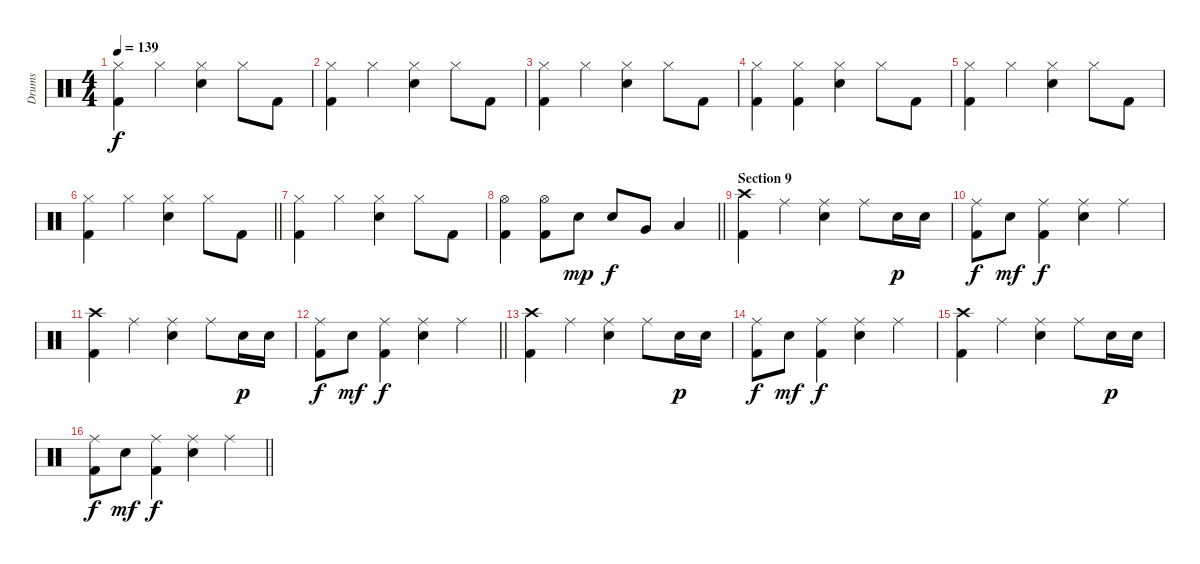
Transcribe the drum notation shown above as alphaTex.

\track ("Drums" "Drums") {instrument percussion}
\staff {score}
\articulation defaults
\ts (4 4)
\tempo 139
\clef neutral
\ks c
("Hi-Hat (closed)" "Kick (hit) 2").4{dy f} "Hi-Hat (closed)".4 ("Hi-Hat (closed)" "Electric Snare (hit)").4 "Hi-Hat (closed)".8 "Kick (hit) 2".8 |
("Hi-Hat (closed)" "Kick (hit) 2").4 "Hi-Hat (closed)".4 ("Hi-Hat (closed)" "Electric Snare (hit)").4 "Hi-Hat (closed)".8 "Kick (hit) 2".8 |
("Hi-Hat (closed)" "Kick (hit) 2").4 "Hi-Hat (closed)".4 ("Hi-Hat (closed)" "Electric Snare (hit)").4 "Hi-Hat (closed)".8 "Kick (hit) 2".8 |
("Hi-Hat (closed)" "Kick (hit) 2").4 ("Hi-Hat (closed)" "Kick (hit) 2").4 ("Hi-Hat (closed)" "Electric Snare (hit)").4 "Hi-Hat (closed)".8 "Kick (hit) 2".8 |
("Hi-Hat (closed)" "Kick (hit) 2").4 "Hi-Hat (closed)".4 ("Hi-Hat (closed)" "Electric Snare (hit)").4 "Hi-Hat (closed)".8 "Kick (hit) 2".8 |
\barLineRight lightlight
("Hi-Hat (closed)" "Kick (hit) 2").4 "Hi-Hat (closed)".4 ("Hi-Hat (closed)" "Electric Snare (hit)").4 "Hi-Hat (closed)".8 "Kick (hit) 2".8 |
("Hi-Hat (closed)" "Kick (hit) 2").4 "Hi-Hat (closed)".4 ("Hi-Hat (closed)" "Electric Snare (hit)").4 "Hi-Hat (closed)".8 "Kick (hit) 2".8 |
\barLineRight lightlight
("Hi-Hat (open)" "Kick (hit) 2").4 ("Hi-Hat (open)" "Kick (hit) 2").8 "Electric Snare (hit)".8{dy mp} "Electric Snare (hit)".8{dy f} "Very Low Tom (hit)".8 "Low Floor Tom (hit)".4 |
\section ("" "Section 9")
("Crash high (hit)" "Kick (hit) 2").4 "Ride (middle)".4 ("Ride (middle)" "Electric Snare (hit)").4 "Ride (middle)".8 "Electric Snare (hit)".16{dy p} "Electric Snare (hit)".16 |
("Ride (middle)" "Kick (hit) 2").8{dy f} "Electric Snare (hit)".8{dy mf} ("Ride (middle)" "Kick (hit) 2").4{dy f} ("Ride (middle)" "Electric Snare (hit)").4 "Ride (middle)".4 |
("Crash high (hit)" "Kick (hit) 2").4 "Ride (middle)".4 ("Ride (middle)" "Electric Snare (hit)").4 "Ride (middle)".8 "Electric Snare (hit)".16{dy p} "Electric Snare (hit)".16 |
\barLineRight lightlight
("Ride (middle)" "Kick (hit) 2").8{dy f} "Electric Snare (hit)".8{dy mf} ("Ride (middle)" "Kick (hit) 2").4{dy f} ("Ride (middle)" "Electric Snare (hit)").4 "Ride (middle)".4 |
("Crash high (hit)" "Kick (hit) 2").4 "Ride (middle)".4 ("Ride (middle)" "Electric Snare (hit)").4 "Ride (middle)".8 "Electric Snare (hit)".16{dy p} "Electric Snare (hit)".16 |
("Ride (middle)" "Kick (hit) 2").8{dy f} "Electric Snare (hit)".8{dy mf} ("Ride (middle)" "Kick (hit) 2").4{dy f} ("Ride (middle)" "Electric Snare (hit)").4 "Ride (middle)".4 |
("Crash high (hit)" "Kick (hit) 2").4 "Ride (middle)".4 ("Ride (middle)" "Electric Snare (hit)").4 "Ride (middle)".8 "Electric Snare (hit)".16{dy p} "Electric Snare (hit)".16 |
\barLineRight lightlight
("Ride (middle)" "Kick (hit) 2").8{dy f} "Electric Snare (hit)".8{dy mf} ("Ride (middle)" "Kick (hit) 2").4{dy f} ("Ride (middle)" "Electric Snare (hit)").4 "Ride (middle)".4
